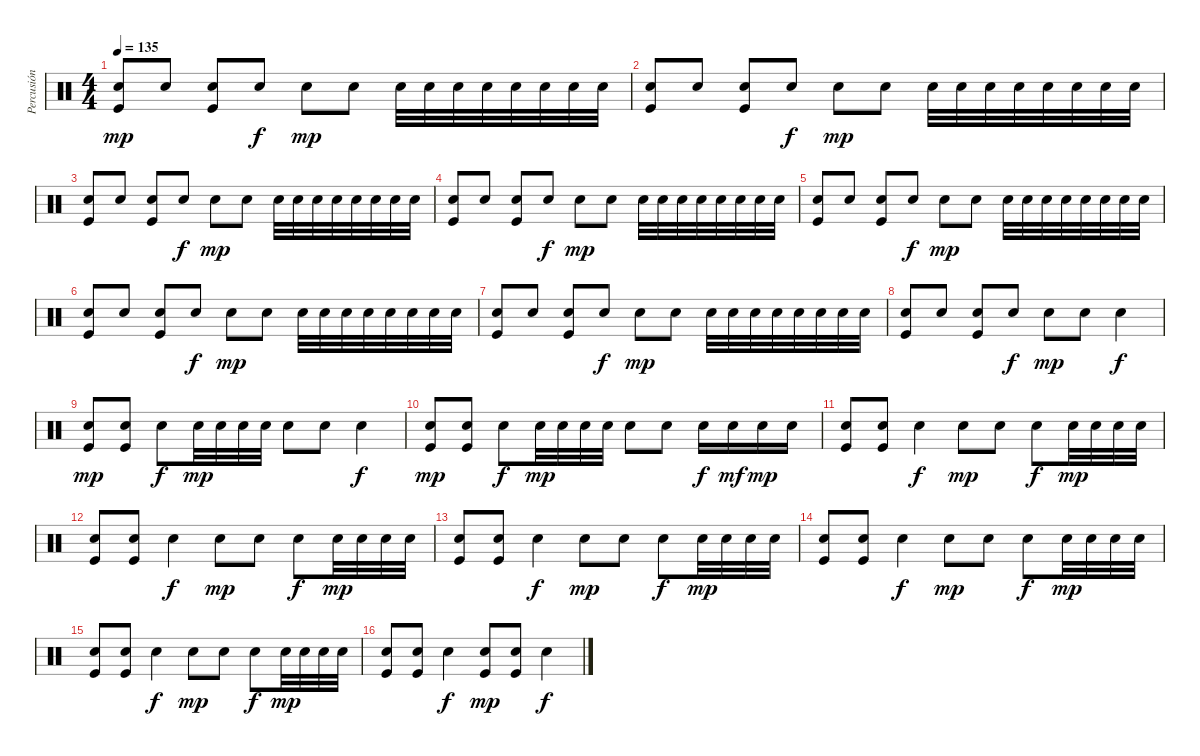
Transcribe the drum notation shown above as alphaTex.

\track ("Percusión" "Percusión") {instrument percussion}
\staff {score}
\articulation defaults
\ts (4 4)
\tempo 135
\clef neutral
\ks c
("Snare (hit) 2" "Kick (hit)").8{dy mp} "Snare (hit) 2".8 ("Snare (hit) 2" "Kick (hit)").8 "Snare (hit) 2".8{dy f} "Snare (hit) 2".8{dy mp} "Snare (hit) 2".8 "Snare (hit) 2".32 "Snare (hit) 2".32 "Snare (hit) 2".32 "Snare (hit) 2".32 "Snare (hit) 2".32 "Snare (hit) 2".32 "Snare (hit) 2".32 "Snare (hit) 2".32 |
("Snare (hit) 2" "Kick (hit)").8 "Snare (hit) 2".8 ("Snare (hit) 2" "Kick (hit)").8 "Snare (hit) 2".8{dy f} "Snare (hit) 2".8{dy mp} "Snare (hit) 2".8 "Snare (hit) 2".32 "Snare (hit) 2".32 "Snare (hit) 2".32 "Snare (hit) 2".32 "Snare (hit) 2".32 "Snare (hit) 2".32 "Snare (hit) 2".32 "Snare (hit) 2".32 |
("Snare (hit) 2" "Kick (hit)").8 "Snare (hit) 2".8 ("Snare (hit) 2" "Kick (hit)").8 "Snare (hit) 2".8{dy f} "Snare (hit) 2".8{dy mp} "Snare (hit) 2".8 "Snare (hit) 2".32 "Snare (hit) 2".32 "Snare (hit) 2".32 "Snare (hit) 2".32 "Snare (hit) 2".32 "Snare (hit) 2".32 "Snare (hit) 2".32 "Snare (hit) 2".32 |
("Snare (hit) 2" "Kick (hit)").8 "Snare (hit) 2".8 ("Snare (hit) 2" "Kick (hit)").8 "Snare (hit) 2".8{dy f} "Snare (hit) 2".8{dy mp} "Snare (hit) 2".8 "Snare (hit) 2".32 "Snare (hit) 2".32 "Snare (hit) 2".32 "Snare (hit) 2".32 "Snare (hit) 2".32 "Snare (hit) 2".32 "Snare (hit) 2".32 "Snare (hit) 2".32 |
("Snare (hit) 2" "Kick (hit)").8 "Snare (hit) 2".8 ("Snare (hit) 2" "Kick (hit)").8 "Snare (hit) 2".8{dy f} "Snare (hit) 2".8{dy mp} "Snare (hit) 2".8 "Snare (hit) 2".32 "Snare (hit) 2".32 "Snare (hit) 2".32 "Snare (hit) 2".32 "Snare (hit) 2".32 "Snare (hit) 2".32 "Snare (hit) 2".32 "Snare (hit) 2".32 |
("Snare (hit) 2" "Kick (hit)").8 "Snare (hit) 2".8 ("Snare (hit) 2" "Kick (hit)").8 "Snare (hit) 2".8{dy f} "Snare (hit) 2".8{dy mp} "Snare (hit) 2".8 "Snare (hit) 2".32 "Snare (hit) 2".32 "Snare (hit) 2".32 "Snare (hit) 2".32 "Snare (hit) 2".32 "Snare (hit) 2".32 "Snare (hit) 2".32 "Snare (hit) 2".32 |
("Snare (hit) 2" "Kick (hit)").8 "Snare (hit) 2".8 ("Snare (hit) 2" "Kick (hit)").8 "Snare (hit) 2".8{dy f} "Snare (hit) 2".8{dy mp} "Snare (hit) 2".8 "Snare (hit) 2".32 "Snare (hit) 2".32 "Snare (hit) 2".32 "Snare (hit) 2".32 "Snare (hit) 2".32 "Snare (hit) 2".32 "Snare (hit) 2".32 "Snare (hit) 2".32 |
("Snare (hit) 2" "Kick (hit)").8 "Snare (hit) 2".8 ("Snare (hit) 2" "Kick (hit)").8 "Snare (hit) 2".8{dy f} "Snare (hit) 2".8{dy mp} "Snare (hit) 2".8 "Snare (hit) 2".4{dy f} |
("Snare (hit) 2" "Kick (hit)").8{dy mp} ("Snare (hit) 2" "Kick (hit)").8 "Snare (hit) 2".8{dy f} "Snare (hit) 2".32{dy mp} "Snare (hit) 2".32 "Snare (hit) 2".32 "Snare (hit) 2".32 "Snare (hit) 2".8 "Snare (hit) 2".8 "Snare (hit) 2".4{dy f} |
("Snare (hit) 2" "Kick (hit)").8{dy mp} ("Snare (hit) 2" "Kick (hit)").8 "Snare (hit) 2".8{dy f} "Snare (hit) 2".32{dy mp} "Snare (hit) 2".32 "Snare (hit) 2".32 "Snare (hit) 2".32 "Snare (hit) 2".8 "Snare (hit) 2".8 "Snare (hit) 2".16{dy f} "Snare (hit) 2".16{dy mf} "Snare (hit) 2".16{dy mp} "Snare (hit) 2".16 |
("Snare (hit) 2" "Kick (hit)").8 ("Snare (hit) 2" "Kick (hit)").8 "Snare (hit) 2".4{dy f} "Snare (hit) 2".8{dy mp} "Snare (hit) 2".8 "Snare (hit) 2".8{dy f} "Snare (hit) 2".32{dy mp} "Snare (hit) 2".32 "Snare (hit) 2".32 "Snare (hit) 2".32 |
("Snare (hit) 2" "Kick (hit)").8 ("Snare (hit) 2" "Kick (hit)").8 "Snare (hit) 2".4{dy f} "Snare (hit) 2".8{dy mp} "Snare (hit) 2".8 "Snare (hit) 2".8{dy f} "Snare (hit) 2".32{dy mp} "Snare (hit) 2".32 "Snare (hit) 2".32 "Snare (hit) 2".32 |
("Snare (hit) 2" "Kick (hit)").8 ("Snare (hit) 2" "Kick (hit)").8 "Snare (hit) 2".4{dy f} "Snare (hit) 2".8{dy mp} "Snare (hit) 2".8 "Snare (hit) 2".8{dy f} "Snare (hit) 2".32{dy mp} "Snare (hit) 2".32 "Snare (hit) 2".32 "Snare (hit) 2".32 |
("Snare (hit) 2" "Kick (hit)").8 ("Snare (hit) 2" "Kick (hit)").8 "Snare (hit) 2".4{dy f} "Snare (hit) 2".8{dy mp} "Snare (hit) 2".8 "Snare (hit) 2".8{dy f} "Snare (hit) 2".32{dy mp} "Snare (hit) 2".32 "Snare (hit) 2".32 "Snare (hit) 2".32 |
("Snare (hit) 2" "Kick (hit)").8 ("Snare (hit) 2" "Kick (hit)").8 "Snare (hit) 2".4{dy f} "Snare (hit) 2".8{dy mp} "Snare (hit) 2".8 "Snare (hit) 2".8{dy f} "Snare (hit) 2".32{dy mp} "Snare (hit) 2".32 "Snare (hit) 2".32 "Snare (hit) 2".32 |
("Snare (hit) 2" "Kick (hit)").8 ("Snare (hit) 2" "Kick (hit)").8 "Snare (hit) 2".4{dy f} ("Snare (hit) 2" "Kick (hit)").8{dy mp} ("Snare (hit) 2" "Kick (hit)").8 "Snare (hit) 2".4{dy f}
